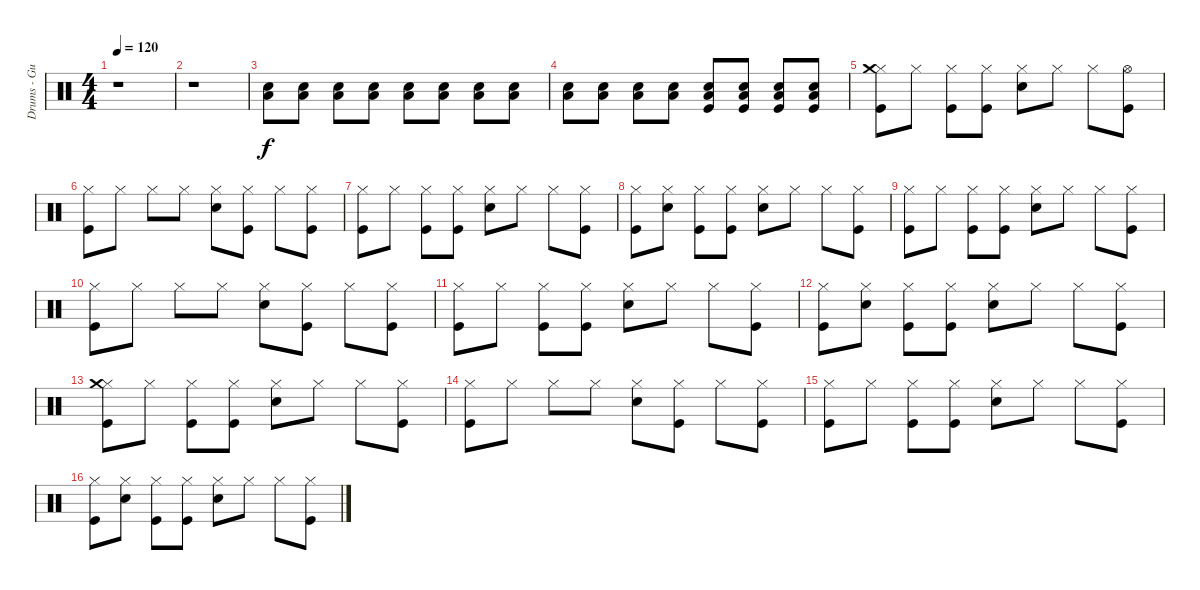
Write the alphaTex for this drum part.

\track ("Drums - Gustav" "Drums - Gu") {instrument percussion}
\staff {score}
\articulation defaults
\ts (4 4)
\tempo 120
\clef neutral
\ks c
r.1{dy f} |
r.1{volume 0} |
("Low Floor Tom (hit)" "Snare (hit) 2").8{volume 13} ("Low Floor Tom (hit)" "Snare (hit) 2").8 ("Low Floor Tom (hit)" "Snare (hit) 2").8 ("Low Floor Tom (hit)" "Snare (hit) 2").8 ("Low Floor Tom (hit)" "Snare (hit) 2").8 ("Low Floor Tom (hit)" "Snare (hit) 2").8 ("Low Floor Tom (hit)" "Snare (hit) 2").8 ("Low Floor Tom (hit)" "Snare (hit) 2").8 |
("Low Floor Tom (hit)" "Snare (hit) 2").8 ("Low Floor Tom (hit)" "Snare (hit) 2").8 ("Low Floor Tom (hit)" "Snare (hit) 2").8 ("Low Floor Tom (hit)" "Snare (hit) 2").8 ("Kick (hit)" "Low Floor Tom (hit)" "Snare (hit) 2").8 ("Kick (hit)" "Low Floor Tom (hit)" "Snare (hit) 2").8 ("Kick (hit)" "Low Floor Tom (hit)" "Snare (hit) 2").8 ("Kick (hit)" "Low Floor Tom (hit)" "Snare (hit) 2").8 |
("Kick (hit)" "Hi-Hat (closed)" "Crash medium (hit)").8 "Hi-Hat (closed)".8 ("Kick (hit)" "Hi-Hat (closed)").8 ("Kick (hit)" "Hi-Hat (closed)").8 ("Hi-Hat (closed)" "Snare (hit) 2").8 "Hi-Hat (closed)".8 "Hi-Hat (closed)".8 ("Kick (hit)" "Hi-Hat (open)").8 |
("Kick (hit)" "Hi-Hat (closed)").8 "Hi-Hat (closed)".8 "Hi-Hat (closed)".8 "Hi-Hat (closed)".8 ("Hi-Hat (closed)" "Snare (hit) 2").8 ("Kick (hit)" "Hi-Hat (closed)").8 "Hi-Hat (closed)".8 ("Kick (hit)" "Hi-Hat (closed)").8 |
("Kick (hit)" "Hi-Hat (closed)").8 "Hi-Hat (closed)".8 ("Kick (hit)" "Hi-Hat (closed)").8 ("Kick (hit)" "Hi-Hat (closed)").8 ("Hi-Hat (closed)" "Snare (hit) 2").8 "Hi-Hat (closed)".8 "Hi-Hat (closed)".8 ("Kick (hit)" "Hi-Hat (closed)").8 |
("Kick (hit)" "Hi-Hat (closed)").8 ("Hi-Hat (closed)" "Snare (hit) 2").8 ("Kick (hit)" "Hi-Hat (closed)").8 ("Kick (hit)" "Hi-Hat (closed)").8 ("Hi-Hat (closed)" "Snare (hit) 2").8 "Hi-Hat (closed)".8 "Hi-Hat (closed)".8 ("Kick (hit)" "Hi-Hat (closed)").8 |
("Kick (hit)" "Hi-Hat (closed)").8 "Hi-Hat (closed)".8 ("Kick (hit)" "Hi-Hat (closed)").8 ("Kick (hit)" "Hi-Hat (closed)").8 ("Hi-Hat (closed)" "Snare (hit) 2").8 "Hi-Hat (closed)".8 "Hi-Hat (closed)".8 ("Kick (hit)" "Hi-Hat (closed)").8 |
("Kick (hit)" "Hi-Hat (closed)").8 "Hi-Hat (closed)".8 "Hi-Hat (closed)".8 "Hi-Hat (closed)".8 ("Hi-Hat (closed)" "Snare (hit) 2").8 ("Kick (hit)" "Hi-Hat (closed)").8 "Hi-Hat (closed)".8 ("Kick (hit)" "Hi-Hat (closed)").8 |
("Kick (hit)" "Hi-Hat (closed)").8 "Hi-Hat (closed)".8 ("Kick (hit)" "Hi-Hat (closed)").8 ("Kick (hit)" "Hi-Hat (closed)").8 ("Hi-Hat (closed)" "Snare (hit) 2").8 "Hi-Hat (closed)".8 "Hi-Hat (closed)".8 ("Kick (hit)" "Hi-Hat (closed)").8 |
("Kick (hit)" "Hi-Hat (closed)").8 ("Hi-Hat (closed)" "Snare (hit) 2").8 ("Kick (hit)" "Hi-Hat (closed)").8 ("Kick (hit)" "Hi-Hat (closed)").8 ("Hi-Hat (closed)" "Snare (hit) 2").8 "Hi-Hat (closed)".8 "Hi-Hat (closed)".8 ("Kick (hit)" "Hi-Hat (closed)").8 |
("Kick (hit)" "Hi-Hat (closed)" "Crash medium (hit)").8 "Hi-Hat (closed)".8 ("Kick (hit)" "Hi-Hat (closed)").8 ("Kick (hit)" "Hi-Hat (closed)").8 ("Hi-Hat (closed)" "Snare (hit) 2").8 "Hi-Hat (closed)".8 "Hi-Hat (closed)".8 ("Kick (hit)" "Hi-Hat (closed)").8 |
("Kick (hit)" "Hi-Hat (closed)").8 "Hi-Hat (closed)".8 "Hi-Hat (closed)".8 "Hi-Hat (closed)".8 ("Hi-Hat (closed)" "Snare (hit) 2").8 ("Kick (hit)" "Hi-Hat (closed)").8 "Hi-Hat (closed)".8 ("Kick (hit)" "Hi-Hat (closed)").8 |
("Kick (hit)" "Hi-Hat (closed)").8 "Hi-Hat (closed)".8 ("Kick (hit)" "Hi-Hat (closed)").8 ("Kick (hit)" "Hi-Hat (closed)").8 ("Hi-Hat (closed)" "Snare (hit) 2").8 "Hi-Hat (closed)".8 "Hi-Hat (closed)".8 ("Kick (hit)" "Hi-Hat (closed)").8 |
("Kick (hit)" "Hi-Hat (closed)").8 ("Hi-Hat (closed)" "Snare (hit) 2").8 ("Kick (hit)" "Hi-Hat (closed)").8 ("Kick (hit)" "Hi-Hat (closed)").8 ("Hi-Hat (closed)" "Snare (hit) 2").8 "Hi-Hat (closed)".8 "Hi-Hat (closed)".8 ("Kick (hit)" "Hi-Hat (closed)").8
